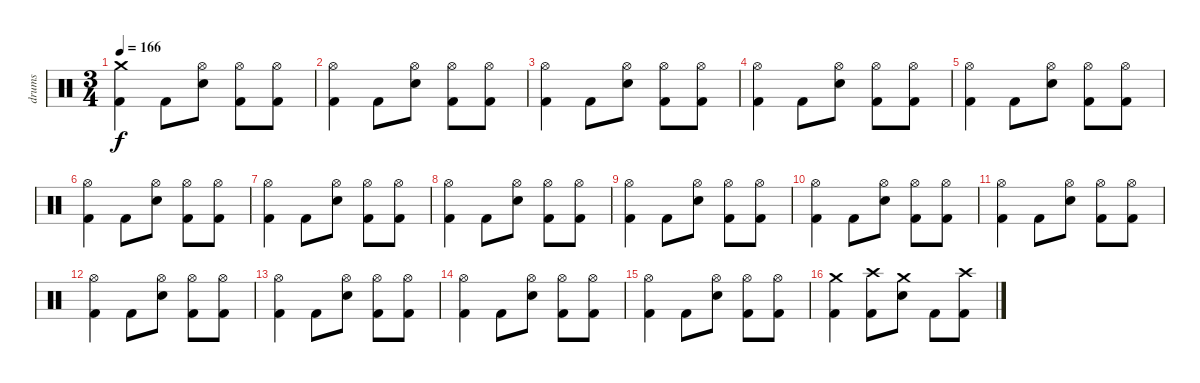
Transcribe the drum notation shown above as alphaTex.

\track ("drums" "drums") {instrument percussion}
\staff {score}
\articulation defaults
\ts (3 4)
\tempo 166
\clef neutral
\ks c
("Crash medium (hit)" "Kick (hit) 2").4{dy f} "Kick (hit) 2".8 ("Hi-Hat (open)" "Electric Snare (hit)").8 ("Hi-Hat (open)" "Kick (hit) 2").8 ("Hi-Hat (open)" "Kick (hit) 2").8 |
("Hi-Hat (open)" "Kick (hit) 2").4 "Kick (hit) 2".8 ("Hi-Hat (open)" "Electric Snare (hit)").8 ("Hi-Hat (open)" "Kick (hit) 2").8 ("Hi-Hat (open)" "Kick (hit) 2").8 |
("Hi-Hat (open)" "Kick (hit) 2").4 "Kick (hit) 2".8 ("Hi-Hat (open)" "Electric Snare (hit)").8 ("Hi-Hat (open)" "Kick (hit) 2").8 ("Hi-Hat (open)" "Kick (hit) 2").8 |
("Hi-Hat (open)" "Kick (hit) 2").4 "Kick (hit) 2".8 ("Hi-Hat (open)" "Electric Snare (hit)").8 ("Hi-Hat (open)" "Kick (hit) 2").8 ("Hi-Hat (open)" "Kick (hit) 2").8 |
("Hi-Hat (open)" "Kick (hit) 2").4 "Kick (hit) 2".8 ("Hi-Hat (open)" "Electric Snare (hit)").8 ("Hi-Hat (open)" "Kick (hit) 2").8 ("Hi-Hat (open)" "Kick (hit) 2").8 |
("Hi-Hat (open)" "Kick (hit) 2").4 "Kick (hit) 2".8 ("Hi-Hat (open)" "Electric Snare (hit)").8 ("Hi-Hat (open)" "Kick (hit) 2").8 ("Hi-Hat (open)" "Kick (hit) 2").8 |
("Hi-Hat (open)" "Kick (hit) 2").4 "Kick (hit) 2".8 ("Hi-Hat (open)" "Electric Snare (hit)").8 ("Hi-Hat (open)" "Kick (hit) 2").8 ("Hi-Hat (open)" "Kick (hit) 2").8 |
("Hi-Hat (open)" "Kick (hit) 2").4 "Kick (hit) 2".8 ("Hi-Hat (open)" "Electric Snare (hit)").8 ("Hi-Hat (open)" "Kick (hit) 2").8 ("Hi-Hat (open)" "Kick (hit) 2").8 |
("Hi-Hat (open)" "Kick (hit) 2").4 "Kick (hit) 2".8 ("Hi-Hat (open)" "Electric Snare (hit)").8 ("Hi-Hat (open)" "Kick (hit) 2").8 ("Hi-Hat (open)" "Kick (hit) 2").8 |
("Hi-Hat (open)" "Kick (hit) 2").4 "Kick (hit) 2".8 ("Hi-Hat (open)" "Electric Snare (hit)").8 ("Hi-Hat (open)" "Kick (hit) 2").8 ("Hi-Hat (open)" "Kick (hit) 2").8 |
("Hi-Hat (open)" "Kick (hit) 2").4 "Kick (hit) 2".8 ("Hi-Hat (open)" "Electric Snare (hit)").8 ("Hi-Hat (open)" "Kick (hit) 2").8 ("Hi-Hat (open)" "Kick (hit) 2").8 |
("Hi-Hat (open)" "Kick (hit) 2").4 "Kick (hit) 2".8 ("Hi-Hat (open)" "Electric Snare (hit)").8 ("Hi-Hat (open)" "Kick (hit) 2").8 ("Hi-Hat (open)" "Kick (hit) 2").8 |
("Hi-Hat (open)" "Kick (hit) 2").4 "Kick (hit) 2".8 ("Hi-Hat (open)" "Electric Snare (hit)").8 ("Hi-Hat (open)" "Kick (hit) 2").8 ("Hi-Hat (open)" "Kick (hit) 2").8 |
("Hi-Hat (open)" "Kick (hit) 2").4 "Kick (hit) 2".8 ("Hi-Hat (open)" "Electric Snare (hit)").8 ("Hi-Hat (open)" "Kick (hit) 2").8 ("Hi-Hat (open)" "Kick (hit) 2").8 |
("Hi-Hat (open)" "Kick (hit) 2").4 "Kick (hit) 2".8 ("Hi-Hat (open)" "Electric Snare (hit)").8 ("Hi-Hat (open)" "Kick (hit) 2").8 ("Hi-Hat (open)" "Kick (hit) 2").8 |
("Crash medium (hit)" "Kick (hit) 2").4 ("Crash high (hit)" "Kick (hit) 2").8 ("Crash medium (hit)" "Electric Snare (hit)").8 "Kick (hit) 2".8 ("Crash high (hit)" "Kick (hit) 2").8
